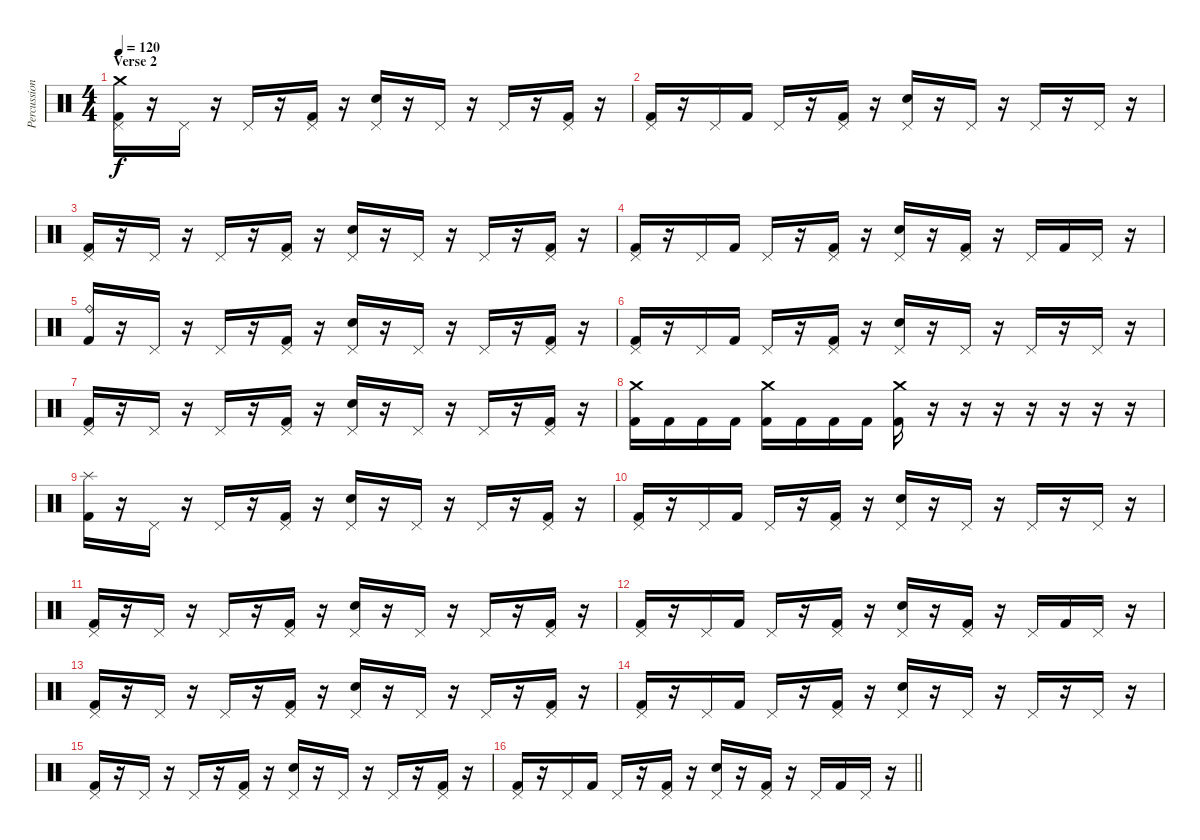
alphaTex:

\track ("Percussion" "Percussion") {instrument percussion}
\staff {score}
\articulation defaults
\ts (4 4)
\section ("" "Verse 2")
\tempo 120
\clef neutral
\ks c
("Crash medium (hit)" "Pedal Hi-Hat (hit)" "Kick (hit) 2").16{dy f} r.16 "Pedal Hi-Hat (hit)".16 r.16 "Pedal Hi-Hat (hit)".16 r.16 ("Pedal Hi-Hat (hit)" "Kick (hit) 2").16 r.16 ("Pedal Hi-Hat (hit)" "Electric Snare (hit)").16 r.16 "Pedal Hi-Hat (hit)".16 r.16 "Pedal Hi-Hat (hit)".16 r.16 ("Pedal Hi-Hat (hit)" "Kick (hit) 2").16 r.16 |
("Pedal Hi-Hat (hit)" "Kick (hit) 2").16 r.16 "Pedal Hi-Hat (hit)".16 "Kick (hit) 2".16 "Pedal Hi-Hat (hit)".16 r.16 ("Pedal Hi-Hat (hit)" "Kick (hit) 2").16 r.16 ("Pedal Hi-Hat (hit)" "Electric Snare (hit)").16 r.16 "Pedal Hi-Hat (hit)".16 r.16 "Pedal Hi-Hat (hit)".16 r.16 "Pedal Hi-Hat (hit)".16 r.16 |
("Pedal Hi-Hat (hit)" "Kick (hit) 2").16 r.16 "Pedal Hi-Hat (hit)".16 r.16 "Pedal Hi-Hat (hit)".16 r.16 ("Pedal Hi-Hat (hit)" "Kick (hit) 2").16 r.16 ("Pedal Hi-Hat (hit)" "Electric Snare (hit)").16 r.16 "Pedal Hi-Hat (hit)".16 r.16 "Pedal Hi-Hat (hit)".16 r.16 ("Pedal Hi-Hat (hit)" "Kick (hit) 2").16 r.16 |
("Pedal Hi-Hat (hit)" "Kick (hit) 2").16 r.16 "Pedal Hi-Hat (hit)".16 "Kick (hit) 2".16 "Pedal Hi-Hat (hit)".16 r.16 ("Pedal Hi-Hat (hit)" "Kick (hit) 2").16 r.16 ("Pedal Hi-Hat (hit)" "Electric Snare (hit)").16 r.16 ("Pedal Hi-Hat (hit)" "Kick (hit) 2").16 r.16 "Pedal Hi-Hat (hit)".16 "Kick (hit) 2".16 "Pedal Hi-Hat (hit)".16 r.16 |
("Ride (bell)" "Kick (hit) 2").16 r.16 "Pedal Hi-Hat (hit)".16 r.16 "Pedal Hi-Hat (hit)".16 r.16 ("Pedal Hi-Hat (hit)" "Kick (hit) 2").16 r.16 ("Pedal Hi-Hat (hit)" "Electric Snare (hit)").16 r.16 "Pedal Hi-Hat (hit)".16 r.16 "Pedal Hi-Hat (hit)".16 r.16 ("Pedal Hi-Hat (hit)" "Kick (hit) 2").16 r.16 |
("Pedal Hi-Hat (hit)" "Kick (hit) 2").16 r.16 "Pedal Hi-Hat (hit)".16 "Kick (hit) 2".16 "Pedal Hi-Hat (hit)".16 r.16 ("Pedal Hi-Hat (hit)" "Kick (hit) 2").16 r.16 ("Pedal Hi-Hat (hit)" "Electric Snare (hit)").16 r.16 "Pedal Hi-Hat (hit)".16 r.16 "Pedal Hi-Hat (hit)".16 r.16 "Pedal Hi-Hat (hit)".16 r.16 |
("Pedal Hi-Hat (hit)" "Kick (hit) 2").16 r.16 "Pedal Hi-Hat (hit)".16 r.16 "Pedal Hi-Hat (hit)".16 r.16 ("Pedal Hi-Hat (hit)" "Kick (hit) 2").16 r.16 ("Pedal Hi-Hat (hit)" "Electric Snare (hit)").16 r.16 "Pedal Hi-Hat (hit)".16 r.16 "Pedal Hi-Hat (hit)".16 r.16 ("Pedal Hi-Hat (hit)" "Kick (hit) 2").16 r.16 |
("Crash medium (hit)" "Kick (hit) 2").16 "Kick (hit) 2".16 "Kick (hit) 2".16 "Kick (hit) 2".16 ("Crash medium (hit)" "Kick (hit) 2").16 "Kick (hit) 2".16 "Kick (hit) 2".16 "Kick (hit) 2".16 ("Crash medium (hit)" "Kick (hit) 2").16 r.16 r.16 r.16 r.16 r.16 r.16 r.16 |
("Splash (hit)" "Kick (hit) 2").16 r.16 "Pedal Hi-Hat (hit)".16 r.16 "Pedal Hi-Hat (hit)".16 r.16 ("Pedal Hi-Hat (hit)" "Kick (hit) 2").16 r.16 ("Pedal Hi-Hat (hit)" "Electric Snare (hit)").16 r.16 "Pedal Hi-Hat (hit)".16 r.16 "Pedal Hi-Hat (hit)".16 r.16 ("Pedal Hi-Hat (hit)" "Kick (hit) 2").16 r.16 |
("Pedal Hi-Hat (hit)" "Kick (hit) 2").16 r.16 "Pedal Hi-Hat (hit)".16 "Kick (hit) 2".16 "Pedal Hi-Hat (hit)".16 r.16 ("Pedal Hi-Hat (hit)" "Kick (hit) 2").16 r.16 ("Pedal Hi-Hat (hit)" "Electric Snare (hit)").16 r.16 "Pedal Hi-Hat (hit)".16 r.16 "Pedal Hi-Hat (hit)".16 r.16 "Pedal Hi-Hat (hit)".16 r.16 |
("Pedal Hi-Hat (hit)" "Kick (hit) 2").16 r.16 "Pedal Hi-Hat (hit)".16 r.16 "Pedal Hi-Hat (hit)".16 r.16 ("Pedal Hi-Hat (hit)" "Kick (hit) 2").16 r.16 ("Pedal Hi-Hat (hit)" "Electric Snare (hit)").16 r.16 "Pedal Hi-Hat (hit)".16 r.16 "Pedal Hi-Hat (hit)".16 r.16 ("Pedal Hi-Hat (hit)" "Kick (hit) 2").16 r.16 |
("Pedal Hi-Hat (hit)" "Kick (hit) 2").16 r.16 "Pedal Hi-Hat (hit)".16 "Kick (hit) 2".16 "Pedal Hi-Hat (hit)".16 r.16 ("Pedal Hi-Hat (hit)" "Kick (hit) 2").16 r.16 ("Pedal Hi-Hat (hit)" "Electric Snare (hit)").16 r.16 ("Pedal Hi-Hat (hit)" "Kick (hit) 2").16 r.16 "Pedal Hi-Hat (hit)".16 "Kick (hit) 2".16 "Pedal Hi-Hat (hit)".16 r.16 |
("Pedal Hi-Hat (hit)" "Kick (hit) 2").16 r.16 "Pedal Hi-Hat (hit)".16 r.16 "Pedal Hi-Hat (hit)".16 r.16 ("Pedal Hi-Hat (hit)" "Kick (hit) 2").16 r.16 ("Pedal Hi-Hat (hit)" "Electric Snare (hit)").16 r.16 "Pedal Hi-Hat (hit)".16 r.16 "Pedal Hi-Hat (hit)".16 r.16 ("Pedal Hi-Hat (hit)" "Kick (hit) 2").16 r.16 |
("Pedal Hi-Hat (hit)" "Kick (hit) 2").16 r.16 "Pedal Hi-Hat (hit)".16 "Kick (hit) 2".16 "Pedal Hi-Hat (hit)".16 r.16 ("Pedal Hi-Hat (hit)" "Kick (hit) 2").16 r.16 ("Pedal Hi-Hat (hit)" "Electric Snare (hit)").16 r.16 "Pedal Hi-Hat (hit)".16 r.16 "Pedal Hi-Hat (hit)".16 r.16 "Pedal Hi-Hat (hit)".16 r.16 |
("Pedal Hi-Hat (hit)" "Kick (hit) 2").16 r.16 "Pedal Hi-Hat (hit)".16 r.16 "Pedal Hi-Hat (hit)".16 r.16 ("Pedal Hi-Hat (hit)" "Kick (hit) 2").16 r.16 ("Pedal Hi-Hat (hit)" "Electric Snare (hit)").16 r.16 "Pedal Hi-Hat (hit)".16 r.16 "Pedal Hi-Hat (hit)".16 r.16 ("Pedal Hi-Hat (hit)" "Kick (hit) 2").16 r.16 |
\barLineRight lightlight
("Pedal Hi-Hat (hit)" "Kick (hit) 2").16 r.16 "Pedal Hi-Hat (hit)".16 "Kick (hit) 2".16 "Pedal Hi-Hat (hit)".16 r.16 ("Pedal Hi-Hat (hit)" "Kick (hit) 2").16 r.16 ("Pedal Hi-Hat (hit)" "Electric Snare (hit)").16 r.16 ("Pedal Hi-Hat (hit)" "Kick (hit) 2").16 r.16 "Pedal Hi-Hat (hit)".16 "Kick (hit) 2".16 "Pedal Hi-Hat (hit)".16 r.16
